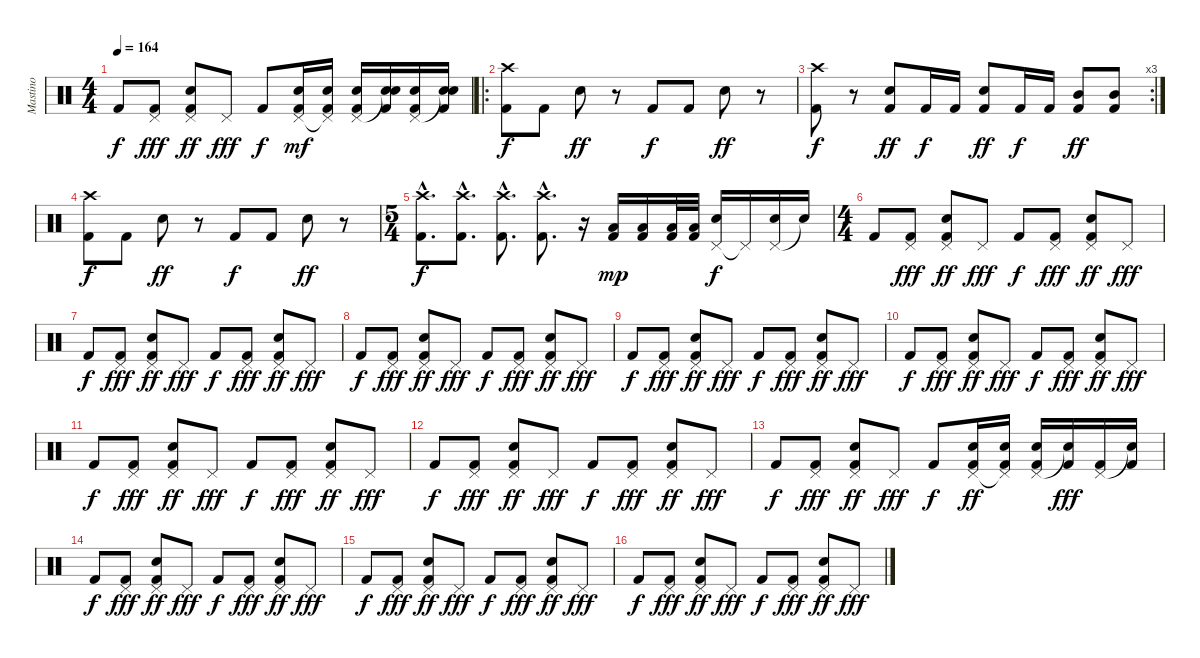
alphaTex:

\track ("Mastino" "Mastino") {instrument percussion}
\staff {score}
\articulation defaults
\ts (4 4)
\tempo 164
\clef neutral
\ks c "Kick (hit) 2".8{dy f}
("Pedal Hi-Hat (hit)" "Kick (hit) 2").8{dy fff} ("Pedal Hi-Hat (hit)" "Electric Snare (hit)" "Kick (hit) 2").8{dy ff} "Pedal Hi-Hat (hit)".8{dy fff} "Kick (hit) 2".8{dy f} ("Pedal Hi-Hat (hit)" "Electric Snare (hit)" "Kick (hit) 2").16{dy mf} ("Pedal Hi-Hat (hit)"{t} "Electric Snare (hit)" "Kick (hit) 2").16 ("Pedal Hi-Hat (hit)" "Electric Snare (hit)" "Kick (hit) 2").16 ("Snare (hit)"{t} "Electric Snare (hit)" "Kick (hit) 2").16 ("Pedal Hi-Hat (hit)" "Electric Snare (hit)" "Kick (hit) 2").16 ("Snare (hit)"{t} "Electric Snare (hit)" "Kick (hit) 2").16 |
\ro
("Crash high (hit)" "Kick (hit) 2").8{dy f} "Kick (hit) 2".8 "Electric Snare (hit)".8{dy ff} r.8 "Kick (hit) 2".8{dy f} "Kick (hit) 2".8 "Electric Snare (hit)".8{dy ff} r.8 |
\rc 3
("Crash high (hit)" "Kick (hit) 2").8{dy f} r.8 ("Electric Snare (hit)" "Kick (hit) 2").8{dy ff} "Kick (hit) 2".16{dy f} "Kick (hit) 2".16 ("Electric Snare (hit)" "Kick (hit) 2").8{dy ff} "Kick (hit) 2".16{dy f} "Kick (hit) 2".16 ("Mid Tom (hit)" "Kick (hit) 2").8{dy ff} ("Mid Tom (hit)" "Kick (hit) 2").8 |
("Crash high (hit)" "Kick (hit) 2").8{dy f} "Kick (hit) 2".8 "Electric Snare (hit)".8{dy ff} r.8 "Kick (hit) 2".8{dy f} "Kick (hit) 2".8 "Electric Snare (hit)".8{dy ff} r.8 |
\ts (5 4)
("Crash high (hit)"{hac} "Kick (hit) 2"{hac}).8{d dy f} ("Crash high (hit)"{hac} "Kick (hit) 2"{hac}).8{d} ("Crash high (hit)"{hac} "Kick (hit) 2"{hac}).8{d} ("Crash high (hit)"{hac} "Kick (hit) 2"{hac}).8{d} r.16 ("Low Tom (hit)" "Kick (hit) 2").16{dy mp} ("Low Tom (hit)" "Kick (hit) 2").16 ("Low Tom (hit)" "Kick (hit) 2").32 ("Low Tom (hit)" "Kick (hit) 2").32 ("Pedal Hi-Hat (hit)" "Electric Snare (hit)").16{dy f} "Pedal Hi-Hat (hit)"{t}.16 ("Pedal Hi-Hat (hit)" "Electric Snare (hit)").16 "Snare (hit)"{t}.16 |
\ts (4 4)
"Kick (hit) 2".8 ("Pedal Hi-Hat (hit)" "Kick (hit) 2").8{dy fff} ("Pedal Hi-Hat (hit)" "Electric Snare (hit)" "Kick (hit) 2").8{dy ff} "Pedal Hi-Hat (hit)".8{dy fff} "Kick (hit) 2".8{dy f} ("Pedal Hi-Hat (hit)" "Kick (hit) 2").8{dy fff} ("Pedal Hi-Hat (hit)" "Electric Snare (hit)" "Kick (hit) 2").8{dy ff} "Pedal Hi-Hat (hit)".8{dy fff} |
"Kick (hit) 2".8{dy f} ("Pedal Hi-Hat (hit)" "Kick (hit) 2").8{dy fff} ("Pedal Hi-Hat (hit)" "Electric Snare (hit)" "Kick (hit) 2").8{dy ff} "Pedal Hi-Hat (hit)".8{dy fff} "Kick (hit) 2".8{dy f} ("Pedal Hi-Hat (hit)" "Kick (hit) 2").8{dy fff} ("Pedal Hi-Hat (hit)" "Electric Snare (hit)" "Kick (hit) 2").8{dy ff} "Pedal Hi-Hat (hit)".8{dy fff} |
"Kick (hit) 2".8{dy f} ("Pedal Hi-Hat (hit)" "Kick (hit) 2").8{dy fff} ("Pedal Hi-Hat (hit)" "Electric Snare (hit)" "Kick (hit) 2").8{dy ff} "Pedal Hi-Hat (hit)".8{dy fff} "Kick (hit) 2".8{dy f} ("Pedal Hi-Hat (hit)" "Kick (hit) 2").8{dy fff} ("Pedal Hi-Hat (hit)" "Electric Snare (hit)" "Kick (hit) 2").8{dy ff} "Pedal Hi-Hat (hit)".8{dy fff} |
"Kick (hit) 2".8{dy f} ("Pedal Hi-Hat (hit)" "Kick (hit) 2").8{dy fff} ("Pedal Hi-Hat (hit)" "Electric Snare (hit)" "Kick (hit) 2").8{dy ff} "Pedal Hi-Hat (hit)".8{dy fff} "Kick (hit) 2".8{dy f} ("Pedal Hi-Hat (hit)" "Kick (hit) 2").8{dy fff} ("Pedal Hi-Hat (hit)" "Electric Snare (hit)" "Kick (hit) 2").8{dy ff} "Pedal Hi-Hat (hit)".8{dy fff} |
"Kick (hit) 2".8{dy f} ("Pedal Hi-Hat (hit)" "Kick (hit) 2").8{dy fff} ("Pedal Hi-Hat (hit)" "Electric Snare (hit)" "Kick (hit) 2").8{dy ff} "Pedal Hi-Hat (hit)".8{dy fff} "Kick (hit) 2".8{dy f} ("Pedal Hi-Hat (hit)" "Kick (hit) 2").8{dy fff} ("Pedal Hi-Hat (hit)" "Electric Snare (hit)" "Kick (hit) 2").8{dy ff} "Pedal Hi-Hat (hit)".8{dy fff} |
"Kick (hit) 2".8{dy f} ("Pedal Hi-Hat (hit)" "Kick (hit) 2").8{dy fff} ("Pedal Hi-Hat (hit)" "Electric Snare (hit)" "Kick (hit) 2").8{dy ff} "Pedal Hi-Hat (hit)".8{dy fff} "Kick (hit) 2".8{dy f} ("Pedal Hi-Hat (hit)" "Kick (hit) 2").8{dy fff} ("Pedal Hi-Hat (hit)" "Electric Snare (hit)" "Kick (hit) 2").8{dy ff} "Pedal Hi-Hat (hit)".8{dy fff} |
"Kick (hit) 2".8{dy f} ("Pedal Hi-Hat (hit)" "Kick (hit) 2").8{dy fff} ("Pedal Hi-Hat (hit)" "Electric Snare (hit)" "Kick (hit) 2").8{dy ff} "Pedal Hi-Hat (hit)".8{dy fff} "Kick (hit) 2".8{dy f} ("Pedal Hi-Hat (hit)" "Kick (hit) 2").8{dy fff} ("Pedal Hi-Hat (hit)" "Electric Snare (hit)" "Kick (hit) 2").8{dy ff} "Pedal Hi-Hat (hit)".8{dy fff} |
"Kick (hit) 2".8{dy f} ("Pedal Hi-Hat (hit)" "Kick (hit) 2").8{dy fff} ("Pedal Hi-Hat (hit)" "Electric Snare (hit)" "Kick (hit) 2").8{dy ff} "Pedal Hi-Hat (hit)".8{dy fff} "Kick (hit) 2".8{dy f} ("Pedal Hi-Hat (hit)" "Electric Snare (hit)" "Kick (hit) 2").16{dy ff} ("Pedal Hi-Hat (hit)"{t} "Electric Snare (hit)" "Kick (hit) 2").16 ("Pedal Hi-Hat (hit)" "Electric Snare (hit)" "Kick (hit) 2").16 ("Snare (hit)"{t} "Kick (hit) 2").16{dy fff} ("Pedal Hi-Hat (hit)" "Kick (hit) 2").16 ("Snare (hit)"{t} "Kick (hit) 2").16 |
"Kick (hit) 2".8{dy f} ("Pedal Hi-Hat (hit)" "Kick (hit) 2").8{dy fff} ("Pedal Hi-Hat (hit)" "Electric Snare (hit)" "Kick (hit) 2").8{dy ff} "Pedal Hi-Hat (hit)".8{dy fff} "Kick (hit) 2".8{dy f} ("Pedal Hi-Hat (hit)" "Kick (hit) 2").8{dy fff} ("Pedal Hi-Hat (hit)" "Electric Snare (hit)" "Kick (hit) 2").8{dy ff} "Pedal Hi-Hat (hit)".8{dy fff} |
"Kick (hit) 2".8{dy f} ("Pedal Hi-Hat (hit)" "Kick (hit) 2").8{dy fff} ("Pedal Hi-Hat (hit)" "Electric Snare (hit)" "Kick (hit) 2").8{dy ff} "Pedal Hi-Hat (hit)".8{dy fff} "Kick (hit) 2".8{dy f} ("Pedal Hi-Hat (hit)" "Kick (hit) 2").8{dy fff} ("Pedal Hi-Hat (hit)" "Electric Snare (hit)" "Kick (hit) 2").8{dy ff} "Pedal Hi-Hat (hit)".8{dy fff} |
"Kick (hit) 2".8{dy f} ("Pedal Hi-Hat (hit)" "Kick (hit) 2").8{dy fff} ("Pedal Hi-Hat (hit)" "Electric Snare (hit)" "Kick (hit) 2").8{dy ff} "Pedal Hi-Hat (hit)".8{dy fff} "Kick (hit) 2".8{dy f} ("Pedal Hi-Hat (hit)" "Kick (hit) 2").8{dy fff} ("Pedal Hi-Hat (hit)" "Electric Snare (hit)" "Kick (hit) 2").8{dy ff} "Pedal Hi-Hat (hit)".8{dy fff}
